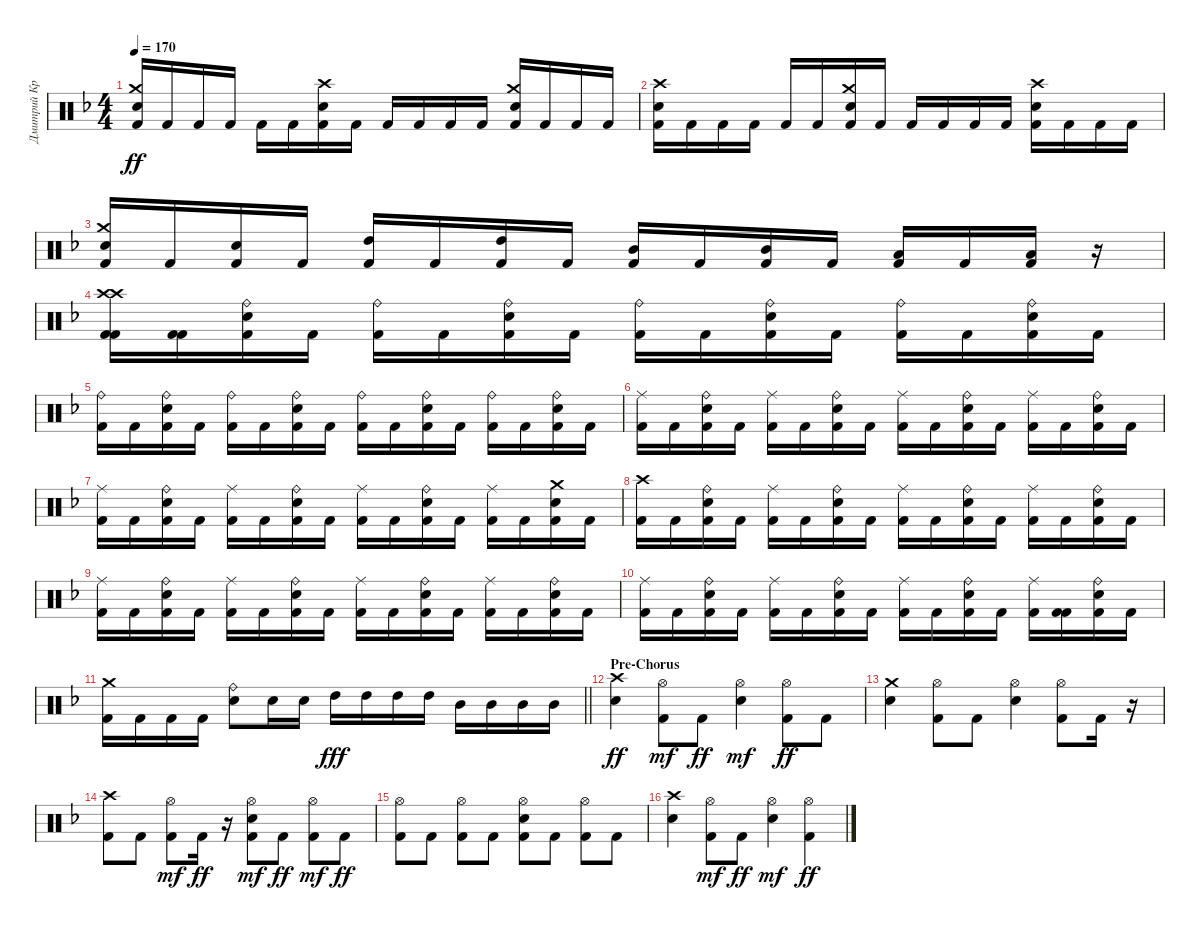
\track ("Дмитрий Кривенков" "Дмитрий Кр") {instrument percussion}
\staff {score}
\articulation defaults
\ts (4 4)
\tempo 170
\clef neutral
\ks f
("Electric Snare (hit)" "Crash medium (hit)" "Kick (hit) 2").16{dy ff} "Kick (hit) 2".16 "Kick (hit) 2".16 "Kick (hit) 2".16 "Kick (hit) 2".16 "Kick (hit) 2".16 ("Crash high (hit)" "Electric Snare (hit)" "Kick (hit) 2").16 "Kick (hit) 2".16 "Kick (hit) 2".16 "Kick (hit) 2".16 "Kick (hit) 2".16 "Kick (hit) 2".16 ("Electric Snare (hit)" "Crash medium (hit)" "Kick (hit) 2").16 "Kick (hit) 2".16 "Kick (hit) 2".16 "Kick (hit) 2".16 |
("Electric Snare (hit)" "Crash high (hit)" "Kick (hit) 2").16 "Kick (hit) 2".16 "Kick (hit) 2".16 "Kick (hit) 2".16 "Kick (hit) 2".16 "Kick (hit) 2".16 ("Electric Snare (hit)" "Crash medium (hit)" "Kick (hit) 2").16 "Kick (hit) 2".16 "Kick (hit) 2".16 "Kick (hit) 2".16 "Kick (hit) 2".16 "Kick (hit) 2".16 ("Crash high (hit)" "Electric Snare (hit)" "Kick (hit) 2").16 "Kick (hit) 2".16 "Kick (hit) 2".16 "Kick (hit) 2".16 |
("Crash medium (hit)" "Electric Snare (hit)" "Kick (hit) 2").16 "Kick (hit) 2".16 ("Electric Snare (hit)" "Kick (hit) 2").16 "Kick (hit) 2".16 ("High Tom (hit)" "Kick (hit) 2").16 "Kick (hit) 2".16 ("High Tom (hit)" "Kick (hit) 2").16 "Kick (hit) 2".16 ("Mid Tom (hit)" "Kick (hit) 2").16 "Kick (hit) 2".16 ("Mid Tom (hit)" "Kick (hit) 2").16 "Kick (hit) 2".16 ("Low Tom (hit)" "Kick (hit) 2").16 "Kick (hit) 2".16 ("Low Tom (hit)" "Kick (hit) 2").16 r.16 |
("Kick (hit) 2" "Crash high (hit)" "Kick (hit) 2" "Crash high (hit)").16 ("Kick (hit) 2" "Kick (hit) 2").16 ("Kick (hit) 2" "Electric Snare (hit)" "Ride (bell)").16 "Kick (hit) 2".16 ("Kick (hit) 2" "Ride (bell)").16 "Kick (hit) 2".16 ("Kick (hit) 2" "Electric Snare (hit)" "Ride (bell)").16 "Kick (hit) 2".16 ("Kick (hit) 2" "Ride (bell)").16 "Kick (hit) 2".16 ("Kick (hit) 2" "Electric Snare (hit)" "Ride (bell)").16 "Kick (hit) 2".16 ("Kick (hit) 2" "Ride (bell)").16 "Kick (hit) 2".16 ("Kick (hit) 2" "Electric Snare (hit)" "Ride (bell)").16 "Kick (hit) 2".16 |
("Kick (hit) 2" "Ride (bell)").16 "Kick (hit) 2".16 ("Kick (hit) 2" "Electric Snare (hit)" "Ride (bell)").16 "Kick (hit) 2".16 ("Kick (hit) 2" "Ride (bell)").16 "Kick (hit) 2".16 ("Kick (hit) 2" "Electric Snare (hit)" "Ride (bell)").16 "Kick (hit) 2".16 ("Kick (hit) 2" "Ride (bell)").16 "Kick (hit) 2".16 ("Kick (hit) 2" "Electric Snare (hit)" "Ride (bell)").16 "Kick (hit) 2".16 ("Kick (hit) 2" "Ride (bell)").16 "Kick (hit) 2".16 ("Kick (hit) 2" "Electric Snare (hit)" "Ride (bell)").16 "Kick (hit) 2".16 |
("Kick (hit) 2" "Ride (middle)").16 "Kick (hit) 2".16 ("Kick (hit) 2" "Electric Snare (hit)" "Ride (bell)").16 "Kick (hit) 2".16 ("Kick (hit) 2" "Ride (middle)").16 "Kick (hit) 2".16 ("Kick (hit) 2" "Electric Snare (hit)" "Ride (bell)").16 "Kick (hit) 2".16 ("Kick (hit) 2" "Ride (middle)").16 "Kick (hit) 2".16 ("Kick (hit) 2" "Electric Snare (hit)" "Ride (bell)").16 "Kick (hit) 2".16 ("Kick (hit) 2" "Ride (middle)").16 "Kick (hit) 2".16 ("Kick (hit) 2" "Electric Snare (hit)" "Ride (bell)").16 "Kick (hit) 2".16 |
("Kick (hit) 2" "Ride (middle)").16 "Kick (hit) 2".16 ("Kick (hit) 2" "Electric Snare (hit)" "Ride (bell)").16 "Kick (hit) 2".16 ("Kick (hit) 2" "Ride (middle)").16 "Kick (hit) 2".16 ("Kick (hit) 2" "Electric Snare (hit)" "Ride (bell)").16 "Kick (hit) 2".16 ("Kick (hit) 2" "Ride (middle)").16 "Kick (hit) 2".16 ("Kick (hit) 2" "Electric Snare (hit)" "Ride (bell)").16 "Kick (hit) 2".16 ("Kick (hit) 2" "Ride (middle)").16 "Kick (hit) 2".16 ("Kick (hit) 2" "Electric Snare (hit)" "Crash medium (hit)").16 "Kick (hit) 2".16 |
("Kick (hit) 2" "Crash high (hit)").16 "Kick (hit) 2".16 ("Kick (hit) 2" "Electric Snare (hit)" "Ride (bell)").16 "Kick (hit) 2".16 ("Kick (hit) 2" "Ride (middle)").16 "Kick (hit) 2".16 ("Kick (hit) 2" "Electric Snare (hit)" "Ride (bell)").16 "Kick (hit) 2".16 ("Kick (hit) 2" "Ride (middle)").16 "Kick (hit) 2".16 ("Kick (hit) 2" "Electric Snare (hit)" "Ride (bell)").16 "Kick (hit) 2".16 ("Kick (hit) 2" "Ride (middle)").16 "Kick (hit) 2".16 ("Kick (hit) 2" "Electric Snare (hit)" "Ride (bell)").16 "Kick (hit) 2".16 |
("Kick (hit) 2" "Ride (middle)").16 "Kick (hit) 2".16 ("Kick (hit) 2" "Electric Snare (hit)" "Ride (bell)").16 "Kick (hit) 2".16 ("Kick (hit) 2" "Ride (middle)").16 "Kick (hit) 2".16 ("Kick (hit) 2" "Electric Snare (hit)" "Ride (bell)").16 "Kick (hit) 2".16 ("Kick (hit) 2" "Ride (middle)").16 "Kick (hit) 2".16 ("Kick (hit) 2" "Electric Snare (hit)" "Ride (bell)").16 "Kick (hit) 2".16 ("Kick (hit) 2" "Ride (middle)").16 "Kick (hit) 2".16 ("Kick (hit) 2" "Electric Snare (hit)" "Ride (bell)").16 "Kick (hit) 2".16 |
("Kick (hit) 2" "Ride (middle)").16 "Kick (hit) 2".16 ("Kick (hit) 2" "Electric Snare (hit)" "Ride (bell)").16 "Kick (hit) 2".16 ("Kick (hit) 2" "Ride (middle)").16 "Kick (hit) 2".16 ("Kick (hit) 2" "Electric Snare (hit)" "Ride (bell)").16 "Kick (hit) 2".16 ("Kick (hit) 2" "Ride (middle)").16 "Kick (hit) 2".16 ("Kick (hit) 2" "Electric Snare (hit)" "Ride (bell)").16 "Kick (hit) 2".16 ("Kick (hit) 2" "Ride (middle)").16 ("Kick (hit) 2" "Kick (hit) 2").16 ("Kick (hit) 2" "Electric Snare (hit)" "Ride (bell)").16 "Kick (hit) 2".16 |
\barLineRight lightlight
("Kick (hit) 2" "Crash medium (hit)").16 "Kick (hit) 2".16 "Kick (hit) 2".16 "Kick (hit) 2".16 ("Ride (bell)" "Electric Snare (hit)").8 "Electric Snare (hit)".16 "Electric Snare (hit)".16 "High Tom (hit)".16{dy fff} "High Tom (hit)".16 "High Tom (hit)".16 "High Tom (hit)".16 "Mid Tom (hit)".16 "Mid Tom (hit)".16 "Mid Tom (hit)".16 "Mid Tom (hit)".16 |
\section ("" "Pre-Chorus")
("Electric Snare (hit)" "Crash high (hit)").4{dy ff} ("Kick (hit) 2" "Hi-Hat (open)").8{dy mf} "Kick (hit) 2".8{dy ff} ("Electric Snare (hit)" "Hi-Hat (open)").4{dy mf} ("Hi-Hat (open)" "Kick (hit) 2").8{dy ff} "Kick (hit) 2".8 |
("Electric Snare (hit)" "Crash medium (hit)").4 ("Hi-Hat (open)" "Kick (hit) 2").8 "Kick (hit) 2".8 ("Hi-Hat (open)" "Electric Snare (hit)").4 ("Hi-Hat (open)" "Kick (hit) 2").8 "Kick (hit) 2".16 r.16 |
("Kick (hit) 2" "Crash high (hit)").8 "Kick (hit) 2".8 ("Kick (hit) 2" "Hi-Hat (open)").8{dy mf} "Kick (hit) 2".16{dy ff} r.16 ("Kick (hit) 2" "Electric Snare (hit)" "Hi-Hat (open)").8{dy mf} "Kick (hit) 2".8{dy ff} ("Kick (hit) 2" "Hi-Hat (open)").8{dy mf} "Kick (hit) 2".8{dy ff} |
("Hi-Hat (open)" "Kick (hit) 2").8 "Kick (hit) 2".8 ("Hi-Hat (open)" "Kick (hit) 2").8 "Kick (hit) 2".8 ("Hi-Hat (open)" "Kick (hit) 2" "Electric Snare (hit)").8 "Kick (hit) 2".8 ("Hi-Hat (open)" "Kick (hit) 2").8 "Kick (hit) 2".8 |
("Electric Snare (hit)" "Crash high (hit)").4 ("Kick (hit) 2" "Hi-Hat (open)").8{dy mf} "Kick (hit) 2".8{dy ff} ("Electric Snare (hit)" "Hi-Hat (open)").4{dy mf} ("Hi-Hat (open)" "Kick (hit) 2").4{dy ff}
